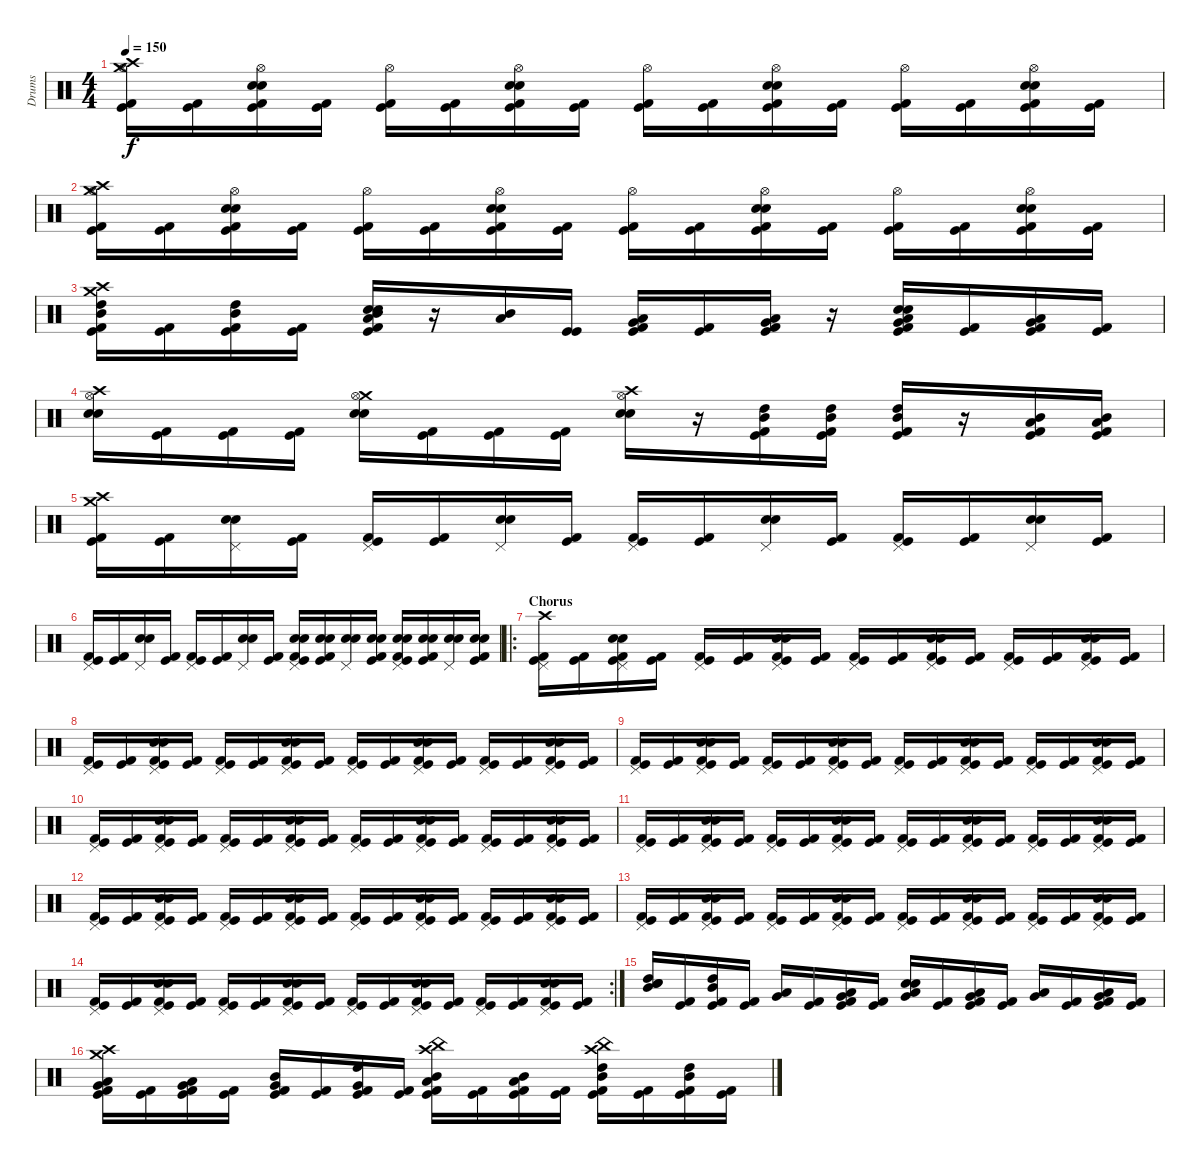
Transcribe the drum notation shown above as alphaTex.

\track ("Drums" "Drums") {instrument percussion}
\staff {score}
\articulation defaults
\ts (4 4)
\tempo 150
\clef neutral
\ks c
("Crash high (hit)" "Hi-Hat (open)" "Crash medium (hit)" "Kick (hit)" "Kick (hit) 2").16{dy f} ("Kick (hit)" "Kick (hit) 2").16 ("Hi-Hat (open)" "Electric Snare (hit)" "Snare (hit) 2" "Kick (hit)" "Kick (hit) 2").16 ("Kick (hit)" "Kick (hit) 2").16 ("Hi-Hat (open)" "Kick (hit)" "Kick (hit) 2").16 ("Kick (hit)" "Kick (hit) 2").16 ("Hi-Hat (open)" "Electric Snare (hit)" "Snare (hit) 2" "Kick (hit)" "Kick (hit) 2").16 ("Kick (hit)" "Kick (hit) 2").16 ("Hi-Hat (open)" "Kick (hit)" "Kick (hit) 2").16 ("Kick (hit)" "Kick (hit) 2").16 ("Hi-Hat (open)" "Electric Snare (hit)" "Snare (hit) 2" "Kick (hit)" "Kick (hit) 2").16 ("Kick (hit)" "Kick (hit) 2").16 ("Hi-Hat (open)" "Kick (hit)" "Kick (hit) 2").16 ("Kick (hit)" "Kick (hit) 2").16 ("Hi-Hat (open)" "Electric Snare (hit)" "Snare (hit) 2" "Kick (hit)" "Kick (hit) 2").16 ("Kick (hit)" "Kick (hit) 2").16 |
("Crash high (hit)" "Hi-Hat (open)" "Crash medium (hit)" "Kick (hit)" "Kick (hit) 2").16 ("Kick (hit)" "Kick (hit) 2").16 ("Hi-Hat (open)" "Electric Snare (hit)" "Snare (hit) 2" "Kick (hit)" "Kick (hit) 2").16 ("Kick (hit)" "Kick (hit) 2").16 ("Hi-Hat (open)" "Kick (hit)" "Kick (hit) 2").16 ("Kick (hit)" "Kick (hit) 2").16 ("Hi-Hat (open)" "Electric Snare (hit)" "Snare (hit) 2" "Kick (hit)" "Kick (hit) 2").16 ("Kick (hit)" "Kick (hit) 2").16 ("Hi-Hat (open)" "Kick (hit)" "Kick (hit) 2").16 ("Kick (hit)" "Kick (hit) 2").16 ("Hi-Hat (open)" "Electric Snare (hit)" "Snare (hit) 2" "Kick (hit)" "Kick (hit) 2").16 ("Kick (hit)" "Kick (hit) 2").16 ("Hi-Hat (open)" "Kick (hit)" "Kick (hit) 2").16 ("Kick (hit)" "Kick (hit) 2").16 ("Hi-Hat (open)" "Electric Snare (hit)" "Snare (hit) 2" "Kick (hit)" "Kick (hit) 2").16 ("Kick (hit)" "Kick (hit) 2").16 |
("Crash high (hit)" "High Tom (hit)" "Crash medium (hit)" "Mid Tom (hit)" "Kick (hit) 2" "Kick (hit)").16 ("Kick (hit) 2" "Kick (hit)").16 ("Mid Tom (hit)" "High Tom (hit)" "Kick (hit) 2" "Kick (hit)").16 ("Kick (hit) 2" "Kick (hit)").16 ("Low Tom (hit)" "Mid Tom (hit)" "Electric Snare (hit)" "Snare (hit) 2" "Kick (hit) 2" "Kick (hit)").16 r.16 ("Low Tom (hit)" "Mid Tom (hit)").16 ("Kick (hit)" "Kick (hit)").16 ("Very Low Tom (hit)" "Low Tom (hit)" "Kick (hit) 2" "Kick (hit)").16 ("Kick (hit) 2" "Kick (hit)").16 ("Very Low Tom (hit)" "Low Tom (hit)" "Kick (hit) 2" "Kick (hit)").16 r.16 ("Low Floor Tom (hit)" "Very Low Tom (hit)" "Electric Snare (hit)" "Snare (hit) 2" "Kick (hit) 2" "Kick (hit)").16 ("Kick (hit) 2" "Kick (hit)").16 ("Low Floor Tom (hit)" "Very Low Tom (hit)" "Kick (hit) 2" "Kick (hit)").16 ("Kick (hit) 2" "Kick (hit)").16 |
("Crash high (hit)" "Hi-Hat (open)" "Electric Snare (hit)" "Snare (hit) 2").16 ("Kick (hit) 2" "Kick (hit)").16 ("Kick (hit) 2" "Kick (hit)").16 ("Kick (hit) 2" "Kick (hit)").16 ("Crash medium (hit)" "Hi-Hat (open)" "Electric Snare (hit)" "Snare (hit) 2").16 ("Kick (hit) 2" "Kick (hit)").16 ("Kick (hit) 2" "Kick (hit)").16 ("Kick (hit) 2" "Kick (hit)").16 ("Crash high (hit)" "Hi-Hat (open)" "Electric Snare (hit)" "Snare (hit) 2").16 r.16 ("High Tom (hit)" "Mid Tom (hit)" "Kick (hit) 2" "Kick (hit)").16 ("High Tom (hit)" "Mid Tom (hit)" "Kick (hit) 2" "Kick (hit)").16 ("High Tom (hit)" "Mid Tom (hit)" "Kick (hit) 2" "Kick (hit)").16 r.16 ("Mid Tom (hit)" "Low Tom (hit)" "Kick (hit) 2" "Kick (hit)").16 ("Mid Tom (hit)" "Low Tom (hit)" "Kick (hit) 2" "Kick (hit)").16 |
("Crash high (hit)" "Crash medium (hit)" "Kick (hit) 2" "Kick (hit)").16 ("Kick (hit) 2" "Kick (hit)").16 ("Pedal Hi-Hat (hit)" "Electric Snare (hit)" "Snare (hit) 2").16 ("Kick (hit) 2" "Kick (hit)").16 ("Pedal Hi-Hat (hit)" "Kick (hit) 2" "Kick (hit)").16 ("Kick (hit) 2" "Kick (hit)").16 ("Pedal Hi-Hat (hit)" "Electric Snare (hit)" "Snare (hit) 2").16 ("Kick (hit)" "Kick (hit) 2").16 ("Pedal Hi-Hat (hit)" "Kick (hit)" "Kick (hit) 2").16 ("Kick (hit)" "Kick (hit) 2").16 ("Pedal Hi-Hat (hit)" "Electric Snare (hit)" "Snare (hit) 2").16 ("Kick (hit) 2" "Kick (hit)").16 ("Pedal Hi-Hat (hit)" "Kick (hit) 2" "Kick (hit)").16 ("Kick (hit) 2" "Kick (hit)").16 ("Pedal Hi-Hat (hit)" "Electric Snare (hit)" "Snare (hit) 2").16 ("Kick (hit)" "Kick (hit) 2").16 |
("Pedal Hi-Hat (hit)" "Kick (hit) 2" "Kick (hit)").16 ("Kick (hit) 2" "Kick (hit)").16 ("Pedal Hi-Hat (hit)" "Electric Snare (hit)" "Snare (hit) 2").16 ("Kick (hit) 2" "Kick (hit)").16 ("Pedal Hi-Hat (hit)" "Kick (hit) 2" "Kick (hit)").16 ("Kick (hit) 2" "Kick (hit)").16 ("Pedal Hi-Hat (hit)" "Electric Snare (hit)" "Snare (hit) 2").16 ("Kick (hit)" "Kick (hit) 2").16 ("Pedal Hi-Hat (hit)" "Electric Snare (hit)" "Snare (hit) 2" "Kick (hit)" "Kick (hit) 2").16 ("Electric Snare (hit)" "Snare (hit) 2" "Kick (hit)" "Kick (hit) 2").16 ("Pedal Hi-Hat (hit)" "Electric Snare (hit)" "Snare (hit) 2").16 ("Electric Snare (hit)" "Snare (hit) 2" "Kick (hit) 2" "Kick (hit)").16 ("Pedal Hi-Hat (hit)" "Electric Snare (hit)" "Snare (hit) 2" "Kick (hit) 2" "Kick (hit)").16 ("Electric Snare (hit)" "Snare (hit) 2" "Kick (hit) 2" "Kick (hit)").16 ("Pedal Hi-Hat (hit)" "Electric Snare (hit)" "Snare (hit) 2").16 ("Electric Snare (hit)" "Snare (hit) 2" "Kick (hit)" "Kick (hit) 2").16 |
\ro
\section ("" "Chorus")
("Crash high (hit)" "Pedal Hi-Hat (hit)" "Kick (hit) 2" "Kick (hit)").16 ("Kick (hit) 2" "Kick (hit)").16 ("Pedal Hi-Hat (hit)" "Electric Snare (hit)" "Snare (hit) 2" "Kick (hit) 2" "Kick (hit)").16 ("Kick (hit) 2" "Kick (hit)").16 ("Pedal Hi-Hat (hit)" "Kick (hit) 2" "Kick (hit)").16 ("Kick (hit) 2" "Kick (hit)").16 ("Pedal Hi-Hat (hit)" "Electric Snare (hit)" "Snare (hit) 2" "Kick (hit) 2" "Kick (hit)").16 ("Kick (hit) 2" "Kick (hit)").16 ("Pedal Hi-Hat (hit)" "Kick (hit) 2" "Kick (hit)").16 ("Kick (hit) 2" "Kick (hit)").16 ("Pedal Hi-Hat (hit)" "Electric Snare (hit)" "Snare (hit) 2" "Kick (hit) 2" "Kick (hit)").16 ("Kick (hit) 2" "Kick (hit)").16 ("Pedal Hi-Hat (hit)" "Kick (hit) 2" "Kick (hit)").16 ("Kick (hit) 2" "Kick (hit)").16 ("Pedal Hi-Hat (hit)" "Electric Snare (hit)" "Snare (hit) 2" "Kick (hit) 2" "Kick (hit)").16 ("Kick (hit) 2" "Kick (hit)").16 |
("Pedal Hi-Hat (hit)" "Kick (hit) 2" "Kick (hit)").16 ("Kick (hit) 2" "Kick (hit)").16 ("Pedal Hi-Hat (hit)" "Electric Snare (hit)" "Snare (hit) 2" "Kick (hit) 2" "Kick (hit)").16 ("Kick (hit) 2" "Kick (hit)").16 ("Pedal Hi-Hat (hit)" "Kick (hit) 2" "Kick (hit)").16 ("Kick (hit) 2" "Kick (hit)").16 ("Pedal Hi-Hat (hit)" "Electric Snare (hit)" "Snare (hit) 2" "Kick (hit) 2" "Kick (hit)").16 ("Kick (hit) 2" "Kick (hit)").16 ("Pedal Hi-Hat (hit)" "Kick (hit) 2" "Kick (hit)").16 ("Kick (hit) 2" "Kick (hit)").16 ("Pedal Hi-Hat (hit)" "Electric Snare (hit)" "Snare (hit) 2" "Kick (hit) 2" "Kick (hit)").16 ("Kick (hit) 2" "Kick (hit)").16 ("Pedal Hi-Hat (hit)" "Kick (hit) 2" "Kick (hit)").16 ("Kick (hit) 2" "Kick (hit)").16 ("Pedal Hi-Hat (hit)" "Electric Snare (hit)" "Snare (hit) 2" "Kick (hit) 2" "Kick (hit)").16 ("Kick (hit) 2" "Kick (hit)").16 |
("Pedal Hi-Hat (hit)" "Kick (hit) 2" "Kick (hit)").16 ("Kick (hit) 2" "Kick (hit)").16 ("Pedal Hi-Hat (hit)" "Electric Snare (hit)" "Snare (hit) 2" "Kick (hit) 2" "Kick (hit)").16 ("Kick (hit) 2" "Kick (hit)").16 ("Pedal Hi-Hat (hit)" "Kick (hit) 2" "Kick (hit)").16 ("Kick (hit) 2" "Kick (hit)").16 ("Pedal Hi-Hat (hit)" "Electric Snare (hit)" "Snare (hit) 2" "Kick (hit) 2" "Kick (hit)").16 ("Kick (hit) 2" "Kick (hit)").16 ("Pedal Hi-Hat (hit)" "Kick (hit) 2" "Kick (hit)").16 ("Kick (hit) 2" "Kick (hit)").16 ("Pedal Hi-Hat (hit)" "Electric Snare (hit)" "Snare (hit) 2" "Kick (hit) 2" "Kick (hit)").16 ("Kick (hit) 2" "Kick (hit)").16 ("Pedal Hi-Hat (hit)" "Kick (hit) 2" "Kick (hit)").16 ("Kick (hit) 2" "Kick (hit)").16 ("Pedal Hi-Hat (hit)" "Electric Snare (hit)" "Snare (hit) 2" "Kick (hit) 2" "Kick (hit)").16 ("Kick (hit) 2" "Kick (hit)").16 |
("Pedal Hi-Hat (hit)" "Kick (hit) 2" "Kick (hit)").16 ("Kick (hit) 2" "Kick (hit)").16 ("Pedal Hi-Hat (hit)" "Electric Snare (hit)" "Snare (hit) 2" "Kick (hit) 2" "Kick (hit)").16 ("Kick (hit) 2" "Kick (hit)").16 ("Pedal Hi-Hat (hit)" "Kick (hit) 2" "Kick (hit)").16 ("Kick (hit) 2" "Kick (hit)").16 ("Pedal Hi-Hat (hit)" "Electric Snare (hit)" "Snare (hit) 2" "Kick (hit) 2" "Kick (hit)").16 ("Kick (hit) 2" "Kick (hit)").16 ("Pedal Hi-Hat (hit)" "Kick (hit) 2" "Kick (hit)").16 ("Kick (hit) 2" "Kick (hit)").16 ("Pedal Hi-Hat (hit)" "Electric Snare (hit)" "Snare (hit) 2" "Kick (hit) 2" "Kick (hit)").16 ("Kick (hit) 2" "Kick (hit)").16 ("Pedal Hi-Hat (hit)" "Kick (hit) 2" "Kick (hit)").16 ("Kick (hit) 2" "Kick (hit)").16 ("Pedal Hi-Hat (hit)" "Electric Snare (hit)" "Snare (hit) 2" "Kick (hit) 2" "Kick (hit)").16 ("Kick (hit) 2" "Kick (hit)").16 |
("Pedal Hi-Hat (hit)" "Kick (hit) 2" "Kick (hit)").16 ("Kick (hit) 2" "Kick (hit)").16 ("Pedal Hi-Hat (hit)" "Electric Snare (hit)" "Snare (hit) 2" "Kick (hit) 2" "Kick (hit)").16 ("Kick (hit) 2" "Kick (hit)").16 ("Pedal Hi-Hat (hit)" "Kick (hit) 2" "Kick (hit)").16 ("Kick (hit) 2" "Kick (hit)").16 ("Pedal Hi-Hat (hit)" "Electric Snare (hit)" "Snare (hit) 2" "Kick (hit) 2" "Kick (hit)").16 ("Kick (hit) 2" "Kick (hit)").16 ("Pedal Hi-Hat (hit)" "Kick (hit) 2" "Kick (hit)").16 ("Kick (hit) 2" "Kick (hit)").16 ("Pedal Hi-Hat (hit)" "Electric Snare (hit)" "Snare (hit) 2" "Kick (hit) 2" "Kick (hit)").16 ("Kick (hit) 2" "Kick (hit)").16 ("Pedal Hi-Hat (hit)" "Kick (hit) 2" "Kick (hit)").16 ("Kick (hit) 2" "Kick (hit)").16 ("Pedal Hi-Hat (hit)" "Electric Snare (hit)" "Snare (hit) 2" "Kick (hit) 2" "Kick (hit)").16 ("Kick (hit) 2" "Kick (hit)").16 |
("Pedal Hi-Hat (hit)" "Kick (hit) 2" "Kick (hit)").16 ("Kick (hit) 2" "Kick (hit)").16 ("Pedal Hi-Hat (hit)" "Electric Snare (hit)" "Snare (hit) 2" "Kick (hit) 2" "Kick (hit)").16 ("Kick (hit) 2" "Kick (hit)").16 ("Pedal Hi-Hat (hit)" "Kick (hit) 2" "Kick (hit)").16 ("Kick (hit) 2" "Kick (hit)").16 ("Pedal Hi-Hat (hit)" "Electric Snare (hit)" "Snare (hit) 2" "Kick (hit) 2" "Kick (hit)").16 ("Kick (hit) 2" "Kick (hit)").16 ("Pedal Hi-Hat (hit)" "Kick (hit) 2" "Kick (hit)").16 ("Kick (hit) 2" "Kick (hit)").16 ("Pedal Hi-Hat (hit)" "Electric Snare (hit)" "Snare (hit) 2" "Kick (hit) 2" "Kick (hit)").16 ("Kick (hit) 2" "Kick (hit)").16 ("Pedal Hi-Hat (hit)" "Kick (hit) 2" "Kick (hit)").16 ("Kick (hit) 2" "Kick (hit)").16 ("Pedal Hi-Hat (hit)" "Electric Snare (hit)" "Snare (hit) 2" "Kick (hit) 2" "Kick (hit)").16 ("Kick (hit) 2" "Kick (hit)").16 |
("Pedal Hi-Hat (hit)" "Kick (hit) 2" "Kick (hit)").16 ("Kick (hit) 2" "Kick (hit)").16 ("Pedal Hi-Hat (hit)" "Electric Snare (hit)" "Snare (hit) 2" "Kick (hit) 2" "Kick (hit)").16 ("Kick (hit) 2" "Kick (hit)").16 ("Pedal Hi-Hat (hit)" "Kick (hit) 2" "Kick (hit)").16 ("Kick (hit) 2" "Kick (hit)").16 ("Pedal Hi-Hat (hit)" "Electric Snare (hit)" "Snare (hit) 2" "Kick (hit) 2" "Kick (hit)").16 ("Kick (hit) 2" "Kick (hit)").16 ("Pedal Hi-Hat (hit)" "Kick (hit) 2" "Kick (hit)").16 ("Kick (hit) 2" "Kick (hit)").16 ("Pedal Hi-Hat (hit)" "Electric Snare (hit)" "Snare (hit) 2" "Kick (hit) 2" "Kick (hit)").16 ("Kick (hit) 2" "Kick (hit)").16 ("Pedal Hi-Hat (hit)" "Kick (hit) 2" "Kick (hit)").16 ("Kick (hit) 2" "Kick (hit)").16 ("Pedal Hi-Hat (hit)" "Electric Snare (hit)" "Snare (hit) 2" "Kick (hit) 2" "Kick (hit)").16 ("Kick (hit) 2" "Kick (hit)").16 |
\rc 2
("Pedal Hi-Hat (hit)" "Kick (hit) 2" "Kick (hit)").16 ("Kick (hit) 2" "Kick (hit)").16 ("Pedal Hi-Hat (hit)" "Electric Snare (hit)" "Snare (hit) 2" "Kick (hit) 2" "Kick (hit)").16 ("Kick (hit) 2" "Kick (hit)").16 ("Pedal Hi-Hat (hit)" "Kick (hit) 2" "Kick (hit)").16 ("Kick (hit) 2" "Kick (hit)").16 ("Pedal Hi-Hat (hit)" "Electric Snare (hit)" "Snare (hit) 2" "Kick (hit) 2" "Kick (hit)").16 ("Kick (hit) 2" "Kick (hit)").16 ("Pedal Hi-Hat (hit)" "Kick (hit) 2" "Kick (hit)").16 ("Kick (hit) 2" "Kick (hit)").16 ("Pedal Hi-Hat (hit)" "Electric Snare (hit)" "Snare (hit) 2" "Kick (hit) 2" "Kick (hit)").16 ("Kick (hit) 2" "Kick (hit)").16 ("Pedal Hi-Hat (hit)" "Kick (hit) 2" "Kick (hit)").16 ("Kick (hit) 2" "Kick (hit)").16 ("Pedal Hi-Hat (hit)" "Electric Snare (hit)" "Snare (hit) 2" "Kick (hit) 2" "Kick (hit)").16 ("Kick (hit) 2" "Kick (hit)").16 |
("Snare (hit) 2" "Electric Snare (hit)" "Mid Tom (hit)" "High Tom (hit)").16 ("Kick (hit) 2" "Kick (hit)").16 ("Mid Tom (hit)" "High Tom (hit)" "Kick (hit) 2" "Kick (hit)").16 ("Kick (hit) 2" "Kick (hit)").16 ("Very Low Tom (hit)" "Low Tom (hit)").16 ("Kick (hit) 2" "Kick (hit)").16 ("Very Low Tom (hit)" "Low Tom (hit)" "Kick (hit) 2" "Kick (hit)").16 ("Kick (hit) 2" "Kick (hit)").16 ("Snare (hit) 2" "Electric Snare (hit)" "Very Low Tom (hit)" "Low Floor Tom (hit)").16 ("Kick (hit) 2" "Kick (hit)").16 ("Very Low Tom (hit)" "Low Floor Tom (hit)" "Kick (hit) 2" "Kick (hit)").16 ("Kick (hit) 2" "Kick (hit)").16 ("Low Tom (hit)" "Very Low Tom (hit)").16 ("Kick (hit) 2" "Kick (hit)").16 ("Low Tom (hit)" "Very Low Tom (hit)" "Kick (hit) 2" "Kick (hit)").16 ("Kick (hit) 2" "Kick (hit)").16 |
("Crash medium (hit)" "Crash high (hit)" "Low Tom (hit)" "Very Low Tom (hit)" "Kick (hit)" "Kick (hit) 2").16 ("Kick (hit)" "Kick (hit) 2").16 ("Low Tom (hit)" "Very Low Tom (hit)" "Kick (hit)" "Kick (hit) 2").16 ("Kick (hit)" "Kick (hit) 2").16 ("Mid Tom (hit)" "Very Low Tom (hit)" "Kick (hit)" "Kick (hit) 2").16 ("Kick (hit)" "Kick (hit) 2").16 ("High Tom (hit)" "Very Low Tom (hit)" "Kick (hit)" "Kick (hit) 2").16 ("Kick (hit)" "Kick (hit) 2").16 ("China (hit)" "Crash high (hit)" "Mid Tom (hit)" "Low Tom (hit)" "Kick (hit)" "Kick (hit) 2").16 ("Kick (hit)" "Kick (hit) 2").16 ("Mid Tom (hit)" "Low Tom (hit)" "Kick (hit)" "Kick (hit) 2").16 ("Kick (hit)" "Kick (hit) 2").16 ("China (hit)" "Crash high (hit)" "High Tom (hit)" "Mid Tom (hit)" "Kick (hit)" "Kick (hit) 2").16 ("Kick (hit)" "Kick (hit) 2").16 ("Mid Tom (hit)" "High Tom (hit)" "Kick (hit)" "Kick (hit) 2").16 ("Kick (hit)" "Kick (hit) 2").16
